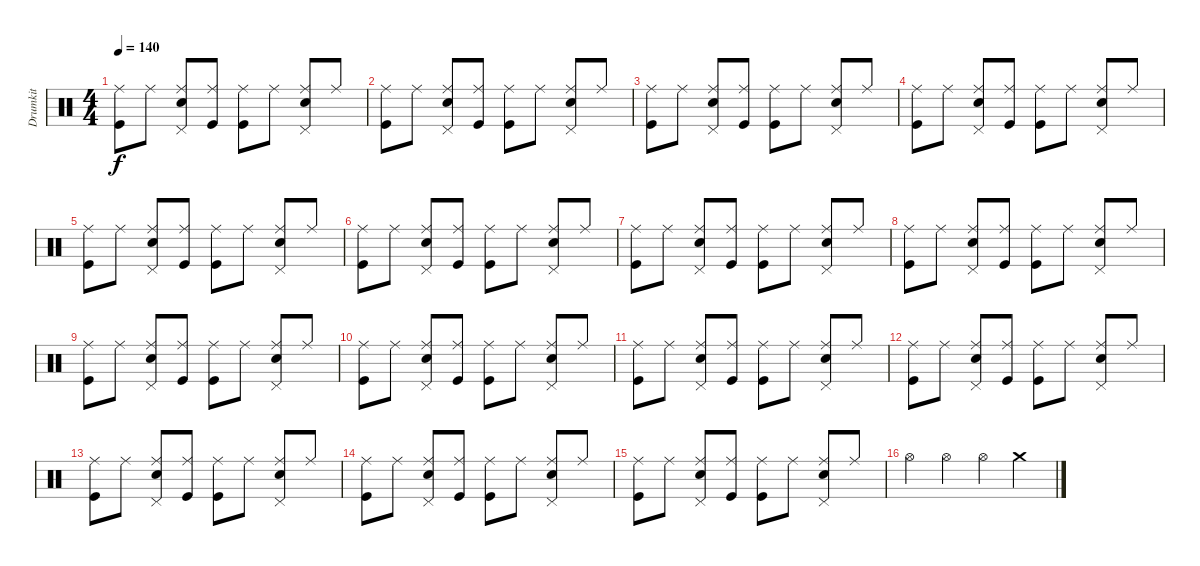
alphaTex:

\track ("Drumkit" "Drumkit") {instrument percussion}
\staff {score}
\articulation defaults
\ts (4 4)
\tempo 140
\clef neutral
\ks c
("Ride (middle)" "Kick (hit)").8{dy f} "Ride (middle)".8 ("Ride (middle)" "Snare (hit) 2" "Pedal Hi-Hat (hit)").8 ("Ride (middle)" "Kick (hit)").8 ("Ride (middle)" "Kick (hit)").8 "Ride (middle)".8 ("Ride (middle)" "Snare (hit) 2" "Pedal Hi-Hat (hit)").8 "Ride (middle)".8 |
("Ride (middle)" "Kick (hit)").8 "Ride (middle)".8 ("Ride (middle)" "Snare (hit) 2" "Pedal Hi-Hat (hit)").8 ("Ride (middle)" "Kick (hit)").8 ("Ride (middle)" "Kick (hit)").8 "Ride (middle)".8 ("Ride (middle)" "Snare (hit) 2" "Pedal Hi-Hat (hit)").8 "Ride (middle)".8 |
("Ride (middle)" "Kick (hit)").8 "Ride (middle)".8 ("Ride (middle)" "Snare (hit) 2" "Pedal Hi-Hat (hit)").8 ("Ride (middle)" "Kick (hit)").8 ("Ride (middle)" "Kick (hit)").8 "Ride (middle)".8 ("Ride (middle)" "Snare (hit) 2" "Pedal Hi-Hat (hit)").8 "Ride (middle)".8 |
("Ride (middle)" "Kick (hit)").8 "Ride (middle)".8 ("Ride (middle)" "Snare (hit) 2" "Pedal Hi-Hat (hit)").8 ("Ride (middle)" "Kick (hit)").8 ("Ride (middle)" "Kick (hit)").8 "Ride (middle)".8 ("Ride (middle)" "Snare (hit) 2" "Pedal Hi-Hat (hit)").8 "Ride (middle)".8 |
("Ride (middle)" "Kick (hit)").8 "Ride (middle)".8 ("Ride (middle)" "Snare (hit) 2" "Pedal Hi-Hat (hit)").8 ("Ride (middle)" "Kick (hit)").8 ("Ride (middle)" "Kick (hit)").8 "Ride (middle)".8 ("Ride (middle)" "Snare (hit) 2" "Pedal Hi-Hat (hit)").8 "Ride (middle)".8 |
("Ride (middle)" "Kick (hit)").8 "Ride (middle)".8 ("Ride (middle)" "Snare (hit) 2" "Pedal Hi-Hat (hit)").8 ("Ride (middle)" "Kick (hit)").8 ("Ride (middle)" "Kick (hit)").8 "Ride (middle)".8 ("Ride (middle)" "Snare (hit) 2" "Pedal Hi-Hat (hit)").8 "Ride (middle)".8 |
("Ride (middle)" "Kick (hit)").8 "Ride (middle)".8 ("Ride (middle)" "Snare (hit) 2" "Pedal Hi-Hat (hit)").8 ("Ride (middle)" "Kick (hit)").8 ("Ride (middle)" "Kick (hit)").8 "Ride (middle)".8 ("Ride (middle)" "Snare (hit) 2" "Pedal Hi-Hat (hit)").8 "Ride (middle)".8 |
("Ride (middle)" "Kick (hit)").8 "Ride (middle)".8 ("Ride (middle)" "Snare (hit) 2" "Pedal Hi-Hat (hit)").8 ("Ride (middle)" "Kick (hit)").8 ("Ride (middle)" "Kick (hit)").8 "Ride (middle)".8 ("Ride (middle)" "Snare (hit) 2" "Pedal Hi-Hat (hit)").8 "Ride (middle)".8 |
("Ride (middle)" "Kick (hit)").8 "Ride (middle)".8 ("Ride (middle)" "Snare (hit) 2" "Pedal Hi-Hat (hit)").8 ("Ride (middle)" "Kick (hit)").8 ("Ride (middle)" "Kick (hit)").8 "Ride (middle)".8 ("Ride (middle)" "Snare (hit) 2" "Pedal Hi-Hat (hit)").8 "Ride (middle)".8 |
("Ride (middle)" "Kick (hit)").8 "Ride (middle)".8 ("Ride (middle)" "Snare (hit) 2" "Pedal Hi-Hat (hit)").8 ("Ride (middle)" "Kick (hit)").8 ("Ride (middle)" "Kick (hit)").8 "Ride (middle)".8 ("Ride (middle)" "Snare (hit) 2" "Pedal Hi-Hat (hit)").8 "Ride (middle)".8 |
("Ride (middle)" "Kick (hit)").8 "Ride (middle)".8 ("Ride (middle)" "Snare (hit) 2" "Pedal Hi-Hat (hit)").8 ("Ride (middle)" "Kick (hit)").8 ("Ride (middle)" "Kick (hit)").8 "Ride (middle)".8 ("Ride (middle)" "Snare (hit) 2" "Pedal Hi-Hat (hit)").8 "Ride (middle)".8 |
("Ride (middle)" "Kick (hit)").8 "Ride (middle)".8 ("Ride (middle)" "Snare (hit) 2" "Pedal Hi-Hat (hit)").8 ("Ride (middle)" "Kick (hit)").8 ("Ride (middle)" "Kick (hit)").8 "Ride (middle)".8 ("Ride (middle)" "Snare (hit) 2" "Pedal Hi-Hat (hit)").8 "Ride (middle)".8 |
("Ride (middle)" "Kick (hit)").8 "Ride (middle)".8 ("Ride (middle)" "Snare (hit) 2" "Pedal Hi-Hat (hit)").8 ("Ride (middle)" "Kick (hit)").8 ("Ride (middle)" "Kick (hit)").8 "Ride (middle)".8 ("Ride (middle)" "Snare (hit) 2" "Pedal Hi-Hat (hit)").8 "Ride (middle)".8 |
("Ride (middle)" "Kick (hit)").8 "Ride (middle)".8 ("Ride (middle)" "Snare (hit) 2" "Pedal Hi-Hat (hit)").8 ("Ride (middle)" "Kick (hit)").8 ("Ride (middle)" "Kick (hit)").8 "Ride (middle)".8 ("Ride (middle)" "Snare (hit) 2" "Pedal Hi-Hat (hit)").8 "Ride (middle)".8 |
("Ride (middle)" "Kick (hit)").8 "Ride (middle)".8 ("Ride (middle)" "Snare (hit) 2" "Pedal Hi-Hat (hit)").8 ("Ride (middle)" "Kick (hit)").8 ("Ride (middle)" "Kick (hit)").8 "Ride (middle)".8 ("Ride (middle)" "Snare (hit) 2" "Pedal Hi-Hat (hit)").8 "Ride (middle)".8 |
"Hi-Hat (open)".4 "Hi-Hat (open)".4 "Hi-Hat (open)".4 "Crash medium (hit)".4
